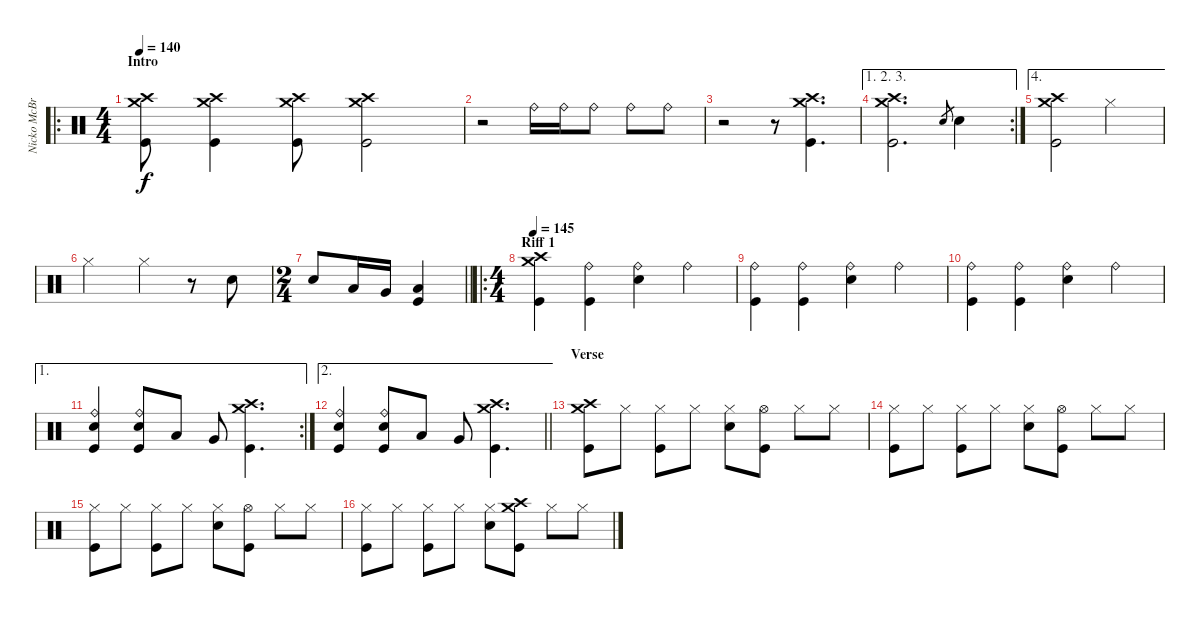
\track ("Nicko McBrain" "Nicko McBr") {instrument percussion}
\staff {score}
\articulation defaults
\ro
\ts (4 4)
\section ("" "Intro")
\tempo 140
\clef neutral
\ks c
("Crash medium (hit)" "Crash high (hit)" "Kick (hit)").8{dy f} ("Crash medium (hit)" "Crash high (hit)" "Kick (hit)").4 ("Crash medium (hit)" "Crash high (hit)" "Kick (hit)").8 ("Crash medium (hit)" "Crash high (hit)" "Kick (hit)").2 |
r.2 "Ride (bell)".16 "Ride (bell)".16 "Ride (bell)".8 "Ride (bell)".8 "Ride (bell)".8 |
r.2 r.8 ("Crash medium (hit)" "Crash high (hit)" "Kick (hit)").4{d} |
\ae (1 2 3)
\rc 2
("Crash medium (hit)" "Crash high (hit)" "Kick (hit)").2{d} "Snare (hit) 2".8{gr} "Snare (hit) 2".4 |
\ae 4
("Crash medium (hit)" "Crash high (hit)" "Kick (hit)").2 "Hi-Hat (closed)".2 |
"Hi-Hat (closed)".2 "Hi-Hat (closed)".4 r.8 "Snare (hit) 2".8 |
\ts (2 4)
\barLineRight lightlight "Snare (hit) 2".8 "Low Tom (hit)".16 "Very Low Tom (hit)".16
("Low Floor Tom (hit)" "Kick (hit)").4 |
\ro
\ts (4 4)
\section ("" "Riff 1")
\tempo 145
("Crash medium (hit)" "Crash high (hit)" "Kick (hit)").4 ("Ride (bell)" "Kick (hit)").4 ("Ride (bell)" "Snare (hit) 2").4 "Ride (bell)".4 |
("Ride (bell)" "Kick (hit)").4 ("Ride (bell)" "Kick (hit)").4 ("Ride (bell)" "Snare (hit) 2").4 "Ride (bell)".4 |
("Ride (bell)" "Kick (hit)").4 ("Ride (bell)" "Kick (hit)").4 ("Ride (bell)" "Snare (hit) 2").4 "Ride (bell)".4 |
\ae 1
\rc 2
("Ride (bell)" "Snare (hit) 2" "Kick (hit)").4 ("Ride (bell)" "Snare (hit) 2" "Kick (hit)").8 "Low Tom (hit)".8 "Very Low Tom (hit)".8 ("Crash medium (hit)" "Crash high (hit)" "Kick (hit)").4{d} |
\ae 2
\barLineRight lightlight
("Ride (bell)" "Snare (hit) 2" "Kick (hit)").4 ("Ride (bell)" "Snare (hit) 2" "Kick (hit)").8 "Low Tom (hit)".8 "Very Low Tom (hit)".8 ("Crash medium (hit)" "Crash high (hit)" "Kick (hit)").4{d} |
\section ("" "Verse")
("Crash medium (hit)" "Crash high (hit)" "Kick (hit)").8 "Hi-Hat (closed)".8 ("Hi-Hat (closed)" "Kick (hit)").8 "Hi-Hat (closed)".8 ("Hi-Hat (closed)" "Snare (hit) 2").8 ("Hi-Hat (open)" "Kick (hit)").8 "Hi-Hat (closed)".8 "Hi-Hat (closed)".8 |
("Hi-Hat (closed)" "Kick (hit)").8 "Hi-Hat (closed)".8 ("Hi-Hat (closed)" "Kick (hit)").8 "Hi-Hat (closed)".8 ("Hi-Hat (closed)" "Snare (hit) 2").8 ("Hi-Hat (open)" "Kick (hit)").8 "Hi-Hat (closed)".8 "Hi-Hat (closed)".8 |
("Hi-Hat (closed)" "Kick (hit)").8 "Hi-Hat (closed)".8 ("Hi-Hat (closed)" "Kick (hit)").8 "Hi-Hat (closed)".8 ("Hi-Hat (closed)" "Snare (hit) 2").8 ("Hi-Hat (open)" "Kick (hit)").8 "Hi-Hat (closed)".8 "Hi-Hat (closed)".8 |
("Hi-Hat (closed)" "Kick (hit)").8 "Hi-Hat (closed)".8 ("Hi-Hat (closed)" "Kick (hit)").8 "Hi-Hat (closed)".8 ("Hi-Hat (closed)" "Snare (hit) 2").8 ("Crash medium (hit)" "Crash high (hit)" "Kick (hit)").8 "Hi-Hat (closed)".8 "Hi-Hat (closed)".8
